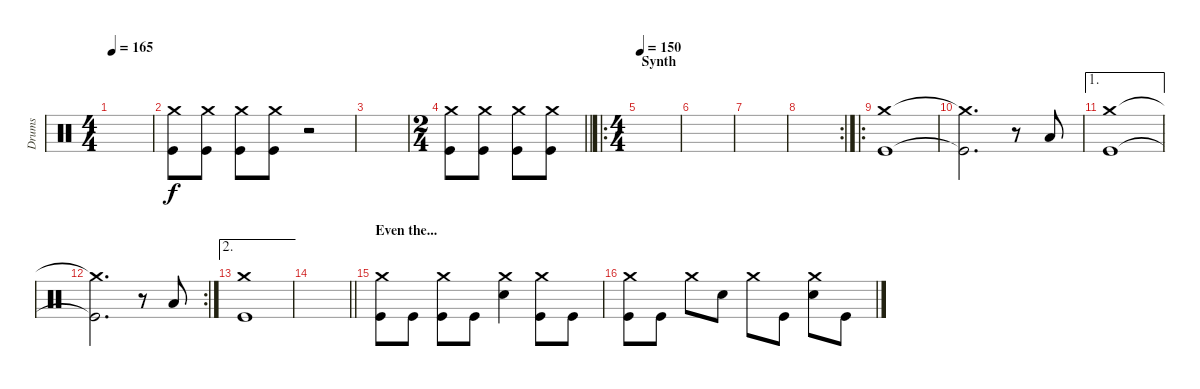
\track ("Drums" "Drums") {instrument percussion}
\staff {score}
\articulation defaults
\ts (4 4)
\tempo 165
\clef neutral
\ks c
|
("Crash medium (hit)" "Kick (hit)").8 ("Crash medium (hit)" "Kick (hit)").8 ("Crash medium (hit)" "Kick (hit)").8 ("Crash medium (hit)" "Kick (hit)").8 r.2 |
|
\ts (2 4)
\barLineRight lightlight
("Crash medium (hit)" "Kick (hit)").8 ("Crash medium (hit)" "Kick (hit)").8 ("Crash medium (hit)" "Kick (hit)").8 ("Crash medium (hit)" "Kick (hit)").8 |
\ro
\ts (4 4)
\section ("" "Synth")
\tempo 150
|
|
|
\rc 2
|
\ro
("Crash medium (hit)" "Kick (hit)").1 |
("Crash medium (hit)"{t} "Kick (hit)"{t}).2{d} r.8 "Low Tom (hit)".8 |
\ae 1
("Crash medium (hit)" "Kick (hit)").1 |
\rc 2
("Crash medium (hit)"{t} "Kick (hit)"{t}).2{d} r.8 "Low Tom (hit)".8 |
\ae 2
("Crash medium (hit)" "Kick (hit)").1 |
\barLineRight lightlight
|
\section ("" "Even the...")
("Crash medium (hit)" "Kick (hit)").8 "Kick (hit)".8 ("Crash medium (hit)" "Kick (hit)").8 "Kick (hit)".8 ("Crash medium (hit)" "Electric Snare (hit)").4 ("Crash medium (hit)" "Kick (hit)").8 "Kick (hit)".8 |
("Crash medium (hit)" "Kick (hit)").8 "Kick (hit)".8 "Crash medium (hit)".8 "Electric Snare (hit)".8 "Crash medium (hit)".8 "Kick (hit)".8 ("Crash medium (hit)" "Electric Snare (hit)").8 "Kick (hit)".8
